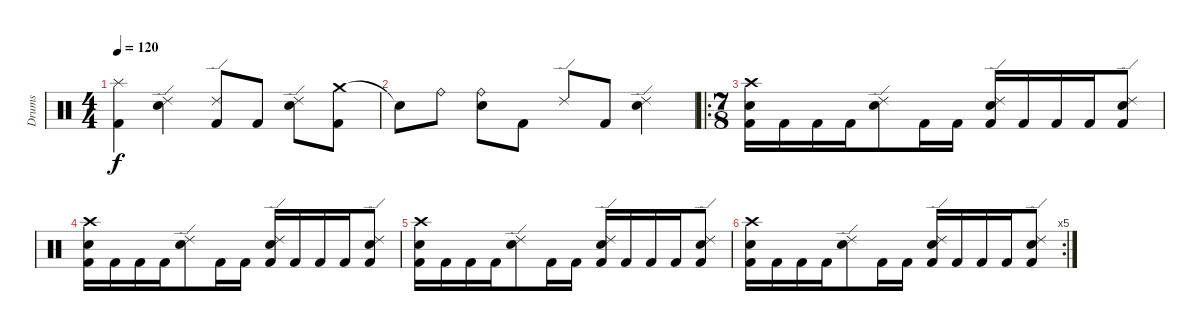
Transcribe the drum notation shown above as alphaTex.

\track ("Drums" "Drums") {instrument percussion}
\staff {score}
\articulation defaults
\ts (4 4)
\tempo 120
\clef neutral
\ks c
("Splash (hit)" "Kick (hit) 2").4{dy f} ("Ride (edge) 2" "Snare (hit) 2").4 ("Ride (edge) 2" "Kick (hit) 2").8 "Kick (hit) 2".8 ("Ride (edge) 2" "Snare (hit) 2").8 ("Crash medium (hit)" "Kick (hit) 2").8 |
"Snare (hit)"{t}.8 "Ride (bell)".8 ("Ride (bell)" "Snare (hit) 2").8 "Kick (hit) 2".8 "Ride (edge) 2".8 "Kick (hit) 2".8 ("Ride (edge) 2" "Snare (hit) 2").4 |
\ro
\ts (7 8)
("Crash high (hit)" "Snare (hit) 2" "Kick (hit) 2").16 "Kick (hit) 2".16 "Kick (hit) 2".16 "Kick (hit) 2".16 ("Ride (edge) 2" "Snare (hit) 2").8 "Kick (hit) 2".16 "Kick (hit) 2".16 ("Ride (edge) 2" "Snare (hit) 2" "Kick (hit) 2").16 "Kick (hit) 2".16 "Kick (hit) 2".16 "Kick (hit) 2".16 ("Ride (edge) 2" "Snare (hit) 2" "Kick (hit) 2").8 |
("Crash high (hit)" "Snare (hit) 2" "Kick (hit) 2").16 "Kick (hit) 2".16 "Kick (hit) 2".16 "Kick (hit) 2".16 ("Ride (edge) 2" "Snare (hit) 2").8 "Kick (hit) 2".16 "Kick (hit) 2".16 ("Ride (edge) 2" "Snare (hit) 2" "Kick (hit) 2").16 "Kick (hit) 2".16 "Kick (hit) 2".16 "Kick (hit) 2".16 ("Ride (edge) 2" "Snare (hit) 2" "Kick (hit) 2").8 |
("Crash high (hit)" "Snare (hit) 2" "Kick (hit) 2").16 "Kick (hit) 2".16 "Kick (hit) 2".16 "Kick (hit) 2".16 ("Ride (edge) 2" "Snare (hit) 2").8 "Kick (hit) 2".16 "Kick (hit) 2".16 ("Ride (edge) 2" "Snare (hit) 2" "Kick (hit) 2").16 "Kick (hit) 2".16 "Kick (hit) 2".16 "Kick (hit) 2".16 ("Ride (edge) 2" "Snare (hit) 2" "Kick (hit) 2").8 |
\rc 5
("Crash high (hit)" "Snare (hit) 2" "Kick (hit) 2").16 "Kick (hit) 2".16 "Kick (hit) 2".16 "Kick (hit) 2".16 ("Ride (edge) 2" "Snare (hit) 2").8 "Kick (hit) 2".16 "Kick (hit) 2".16 ("Ride (edge) 2" "Snare (hit) 2" "Kick (hit) 2").16 "Kick (hit) 2".16 "Kick (hit) 2".16 "Kick (hit) 2".16 ("Ride (edge) 2" "Snare (hit) 2" "Kick (hit) 2").8
